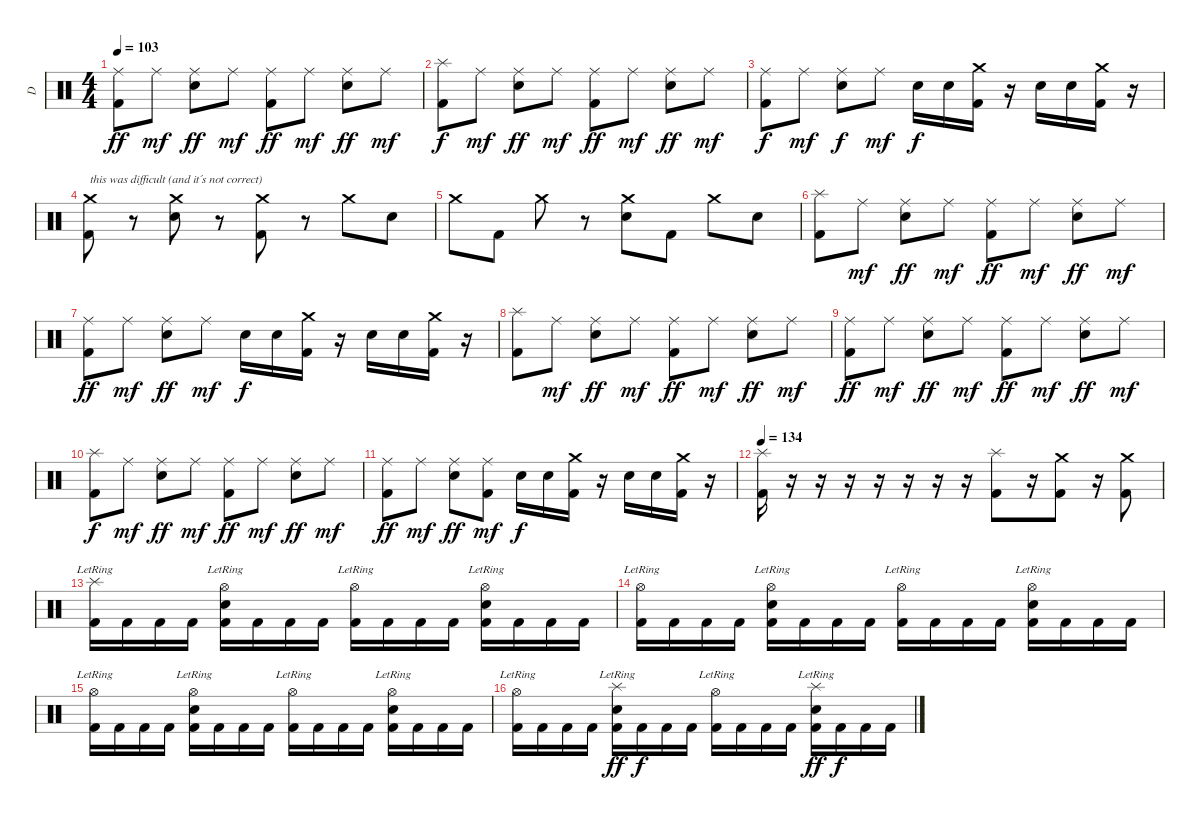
\track ("D" "D") {instrument percussion}
\staff {score}
\articulation defaults
\ts (4 4)
\tempo 103
\clef neutral
\ks c
("Ride (middle)" "Kick (hit) 2").8{dy ff} "Ride (middle)".8{dy mf} ("Ride (middle)" "Snare (hit) 2").8{dy ff} "Ride (middle)".8{dy mf} ("Ride (middle)" "Kick (hit) 2").8{dy ff} "Ride (middle)".8{dy mf} ("Ride (middle)" "Snare (hit) 2").8{dy ff} "Ride (middle)".8{dy mf} |
("Splash (hit)" "Kick (hit) 2").8{dy f} "Ride (middle)".8{dy mf} ("Ride (middle)" "Snare (hit) 2").8{dy ff} "Ride (middle)".8{dy mf} ("Ride (middle)" "Kick (hit) 2").8{dy ff} "Ride (middle)".8{dy mf} ("Ride (middle)" "Snare (hit) 2").8{dy ff} "Ride (middle)".8{dy mf} |
("Ride (middle)" "Kick (hit) 2").8{dy f} "Ride (middle)".8{dy mf} ("Ride (middle)" "Snare (hit) 2").8{dy f} "Ride (middle)".8{dy mf} "Snare (hit) 2".16{dy f} "Snare (hit) 2".16 ("Crash medium (hit)" "Kick (hit) 2").16 r.16 "Snare (hit) 2".16 "Snare (hit) 2".16 ("Crash medium (hit)" "Kick (hit) 2").16 r.16 |
("Crash medium (hit)" "Kick (hit) 2").8{txt "this was difficult (and it´s not correct)"} r.8 ("Crash medium (hit)" "Snare (hit) 2").8 r.8 ("Crash medium (hit)" "Kick (hit) 2").8 r.8 "Crash medium (hit)".8 "Snare (hit) 2".8 |
"Crash medium (hit)".8 "Kick (hit) 2".8 "Crash medium (hit)".8 r.8 ("Crash medium (hit)" "Snare (hit) 2").8 "Kick (hit) 2".8 "Crash medium (hit)".8 "Snare (hit) 2".8 |
("Splash (hit)" "Kick (hit) 2").8 "Ride (middle)".8{dy mf} ("Ride (middle)" "Snare (hit) 2").8{dy ff} "Ride (middle)".8{dy mf} ("Ride (middle)" "Kick (hit) 2").8{dy ff} "Ride (middle)".8{dy mf} ("Ride (middle)" "Snare (hit) 2").8{dy ff} "Ride (middle)".8{dy mf} |
("Ride (middle)" "Kick (hit) 2").8{dy ff} "Ride (middle)".8{dy mf} ("Ride (middle)" "Snare (hit) 2").8{dy ff} "Ride (middle)".8{dy mf} "Snare (hit) 2".16{dy f} "Snare (hit) 2".16 ("Crash medium (hit)" "Kick (hit) 2").16 r.16 "Snare (hit) 2".16 "Snare (hit) 2".16 ("Crash medium (hit)" "Kick (hit) 2").16 r.16 |
("Splash (hit)" "Kick (hit) 2").8 "Ride (middle)".8{dy mf} ("Ride (middle)" "Snare (hit) 2").8{dy ff} "Ride (middle)".8{dy mf} ("Ride (middle)" "Kick (hit) 2").8{dy ff} "Ride (middle)".8{dy mf} ("Ride (middle)" "Snare (hit) 2").8{dy ff} "Ride (middle)".8{dy mf} |
("Ride (middle)" "Kick (hit) 2").8{dy ff} "Ride (middle)".8{dy mf} ("Ride (middle)" "Snare (hit) 2").8{dy ff} "Ride (middle)".8{dy mf} ("Ride (middle)" "Kick (hit) 2").8{dy ff} "Ride (middle)".8{dy mf} ("Ride (middle)" "Snare (hit) 2").8{dy ff} "Ride (middle)".8{dy mf} |
("Splash (hit)" "Kick (hit) 2").8{dy f} "Ride (middle)".8{dy mf} ("Ride (middle)" "Snare (hit) 2").8{dy ff} "Ride (middle)".8{dy mf} ("Ride (middle)" "Kick (hit) 2").8{dy ff} "Ride (middle)".8{dy mf} ("Ride (middle)" "Snare (hit) 2").8{dy ff} "Ride (middle)".8{dy mf} |
("Ride (middle)" "Kick (hit) 2").8{dy ff} "Ride (middle)".8{dy mf} ("Ride (middle)" "Snare (hit) 2").8{dy ff} ("Ride (middle)" "Kick (hit) 2").8{dy mf} "Snare (hit) 2".16{dy f} "Snare (hit) 2".16 ("Crash medium (hit)" "Kick (hit) 2").16 r.16 "Snare (hit) 2".16 "Snare (hit) 2".16 ("Crash medium (hit)" "Kick (hit) 2").16 r.16 |
\tempo 134
("Splash (hit)" "Kick (hit) 2").16 r.16 r.16 r.16 r.16 r.16 r.16 r.16 ("Splash (hit)" "Kick (hit) 2").8 r.16 ("Crash medium (hit)" "Kick (hit) 2").8 r.16 ("Crash medium (hit)" "Kick (hit) 2").8 |
("Splash (hit)"{lr} "Kick (hit) 2").16 "Kick (hit) 2".16 "Kick (hit) 2".16 "Kick (hit) 2".16 ("Hi-Hat (open)"{lr} "Snare (hit) 2" "Kick (hit) 2").16 "Kick (hit) 2".16 "Kick (hit) 2".16 "Kick (hit) 2".16 ("Hi-Hat (open)"{lr} "Kick (hit) 2").16 "Kick (hit) 2".16 "Kick (hit) 2".16 "Kick (hit) 2".16 ("Hi-Hat (open)"{lr} "Snare (hit) 2" "Kick (hit) 2").16 "Kick (hit) 2".16 "Kick (hit) 2".16 "Kick (hit) 2".16 |
("Hi-Hat (open)"{lr} "Kick (hit) 2").16 "Kick (hit) 2".16 "Kick (hit) 2".16 "Kick (hit) 2".16 ("Hi-Hat (open)"{lr} "Snare (hit) 2" "Kick (hit) 2").16 "Kick (hit) 2".16 "Kick (hit) 2".16 "Kick (hit) 2".16 ("Hi-Hat (open)"{lr} "Kick (hit) 2").16 "Kick (hit) 2".16 "Kick (hit) 2".16 "Kick (hit) 2".16 ("Hi-Hat (open)"{lr} "Snare (hit) 2" "Kick (hit) 2").16 "Kick (hit) 2".16 "Kick (hit) 2".16 "Kick (hit) 2".16 |
("Hi-Hat (open)"{lr} "Kick (hit) 2").16 "Kick (hit) 2".16 "Kick (hit) 2".16 "Kick (hit) 2".16 ("Hi-Hat (open)"{lr} "Snare (hit) 2" "Kick (hit) 2").16 "Kick (hit) 2".16 "Kick (hit) 2".16 "Kick (hit) 2".16 ("Hi-Hat (open)"{lr} "Kick (hit) 2").16 "Kick (hit) 2".16 "Kick (hit) 2".16 "Kick (hit) 2".16 ("Hi-Hat (open)"{lr} "Snare (hit) 2" "Kick (hit) 2").16 "Kick (hit) 2".16 "Kick (hit) 2".16 "Kick (hit) 2".16 |
("Hi-Hat (open)"{lr} "Kick (hit) 2").16 "Kick (hit) 2".16 "Kick (hit) 2".16 "Kick (hit) 2".16 ("Snare (hit) 2" "Splash (hit)"{lr} "Kick (hit) 2").16{dy ff} "Kick (hit) 2".16{dy f} "Kick (hit) 2".16 "Kick (hit) 2".16 ("Hi-Hat (open)"{lr} "Kick (hit) 2").16 "Kick (hit) 2".16 "Kick (hit) 2".16 "Kick (hit) 2".16 ("Snare (hit) 2" "Splash (hit)"{lr} "Kick (hit) 2").16{dy ff} "Kick (hit) 2".16{dy f} "Kick (hit) 2".16 "Kick (hit) 2".16
